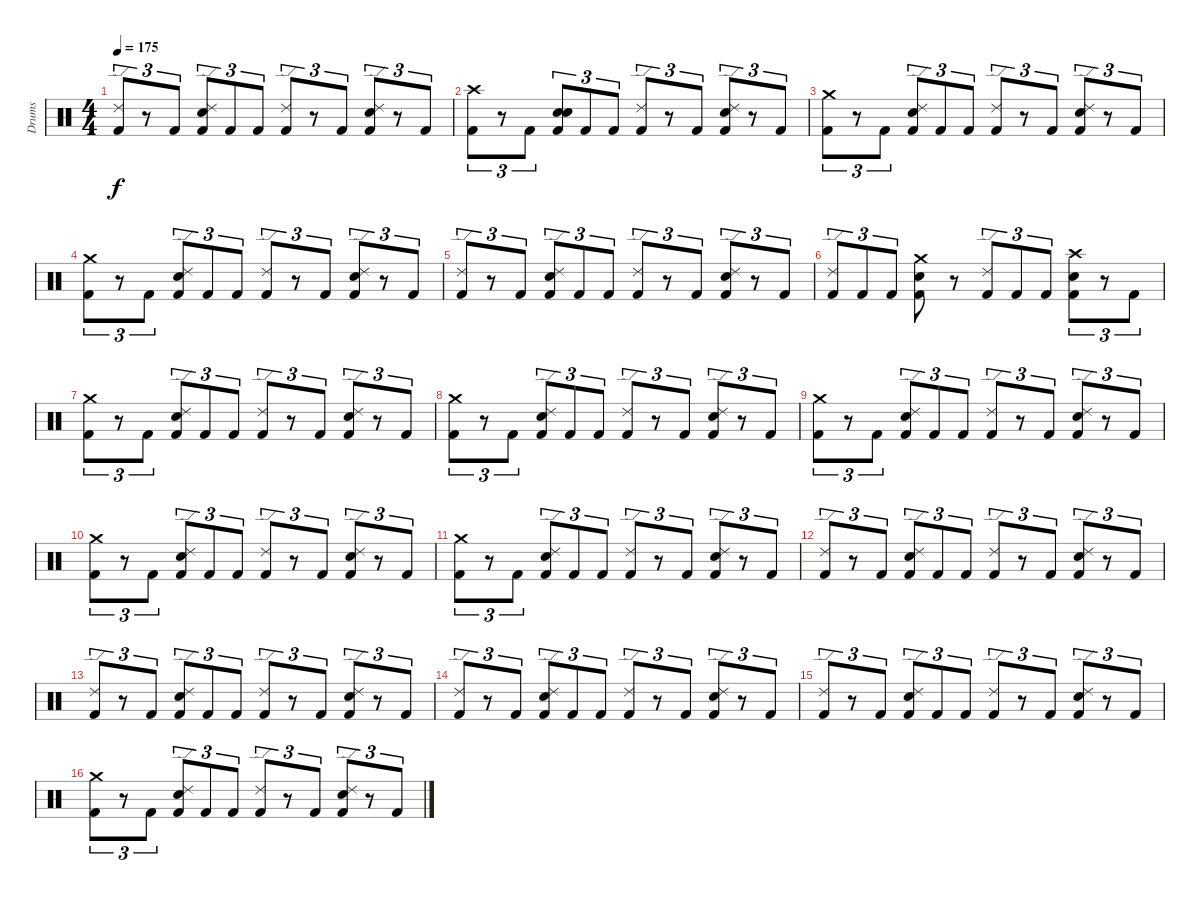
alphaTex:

\track ("Drums" "Drums") {instrument percussion}
\staff {score}
\articulation defaults
\ts (4 4)
\tempo 175
\clef neutral
\ks c
("Ride (edge) 2" "Kick (hit) 2").8{tu (3 2) dy f} r.8{tu (3 2)} "Kick (hit) 2".8{tu (3 2)} ("Ride (edge) 2" "Electric Snare (hit)" "Kick (hit) 2").8{tu (3 2)} "Kick (hit) 2".8{tu (3 2)} "Kick (hit) 2".8{tu (3 2)} ("Ride (edge) 2" "Kick (hit) 2").8{tu (3 2)} r.8{tu (3 2)} "Kick (hit) 2".8{tu (3 2)} ("Electric Snare (hit)" "Kick (hit) 2" "Ride (edge) 2").8{tu (3 2)} r.8{tu (3 2)} "Kick (hit) 2".8{tu (3 2)} |
("Crash high (hit)" "Kick (hit) 2").8{tu (3 2)} r.8{tu (3 2)} "Kick (hit) 2".8{tu (3 2)} ("Electric Snare (hit)" "Electric Snare (hit)" "Kick (hit) 2").8{tu (3 2)} "Kick (hit) 2".8{tu (3 2)} "Kick (hit) 2".8{tu (3 2)} ("Ride (edge) 2" "Kick (hit) 2").8{tu (3 2)} r.8{tu (3 2)} "Kick (hit) 2".8{tu (3 2)} ("Electric Snare (hit)" "Kick (hit) 2" "Ride (edge) 2").8{tu (3 2)} r.8{tu (3 2)} "Kick (hit) 2".8{tu (3 2)} |
("Crash medium (hit)" "Kick (hit) 2").8{tu (3 2)} r.8{tu (3 2)} "Kick (hit) 2".8{tu (3 2)} ("Ride (edge) 2" "Electric Snare (hit)" "Kick (hit) 2").8{tu (3 2)} "Kick (hit) 2".8{tu (3 2)} "Kick (hit) 2".8{tu (3 2)} ("Ride (edge) 2" "Kick (hit) 2").8{tu (3 2)} r.8{tu (3 2)} "Kick (hit) 2".8{tu (3 2)} ("Electric Snare (hit)" "Kick (hit) 2" "Ride (edge) 2").8{tu (3 2)} r.8{tu (3 2)} "Kick (hit) 2".8{tu (3 2)} |
("Crash medium (hit)" "Kick (hit) 2").8{tu (3 2)} r.8{tu (3 2)} "Kick (hit) 2".8{tu (3 2)} ("Ride (edge) 2" "Electric Snare (hit)" "Kick (hit) 2").8{tu (3 2)} "Kick (hit) 2".8{tu (3 2)} "Kick (hit) 2".8{tu (3 2)} ("Ride (edge) 2" "Kick (hit) 2").8{tu (3 2)} r.8{tu (3 2)} "Kick (hit) 2".8{tu (3 2)} ("Electric Snare (hit)" "Kick (hit) 2" "Ride (edge) 2").8{tu (3 2)} r.8{tu (3 2)} "Kick (hit) 2".8{tu (3 2)} |
("Ride (edge) 2" "Kick (hit) 2").8{tu (3 2)} r.8{tu (3 2)} "Kick (hit) 2".8{tu (3 2)} ("Ride (edge) 2" "Electric Snare (hit)" "Kick (hit) 2").8{tu (3 2)} "Kick (hit) 2".8{tu (3 2)} "Kick (hit) 2".8{tu (3 2)} ("Ride (edge) 2" "Kick (hit) 2").8{tu (3 2)} r.8{tu (3 2)} "Kick (hit) 2".8{tu (3 2)} ("Electric Snare (hit)" "Kick (hit) 2" "Ride (edge) 2").8{tu (3 2)} r.8{tu (3 2)} "Kick (hit) 2".8{tu (3 2)} |
("Ride (edge) 2" "Kick (hit) 2").8{tu (3 2)} "Kick (hit) 2".8{tu (3 2)} "Kick (hit) 2".8{tu (3 2)} ("Electric Snare (hit)" "Crash medium (hit)" "Kick (hit) 2").8 r.8 ("Ride (edge) 2" "Kick (hit) 2").8{tu (3 2)} "Kick (hit) 2".8{tu (3 2)} "Kick (hit) 2".8{tu (3 2)} ("Electric Snare (hit)" "Crash high (hit)" "Kick (hit) 2").8{tu (3 2)} r.8{tu (3 2)} "Kick (hit) 2".8{tu (3 2)} |
("Crash medium (hit)" "Kick (hit) 2").8{tu (3 2)} r.8{tu (3 2)} "Kick (hit) 2".8{tu (3 2)} ("Ride (edge) 2" "Electric Snare (hit)" "Kick (hit) 2").8{tu (3 2)} "Kick (hit) 2".8{tu (3 2)} "Kick (hit) 2".8{tu (3 2)} ("Ride (edge) 2" "Kick (hit) 2").8{tu (3 2)} r.8{tu (3 2)} "Kick (hit) 2".8{tu (3 2)} ("Electric Snare (hit)" "Kick (hit) 2" "Ride (edge) 2").8{tu (3 2)} r.8{tu (3 2)} "Kick (hit) 2".8{tu (3 2)} |
("Crash medium (hit)" "Kick (hit) 2").8{tu (3 2)} r.8{tu (3 2)} "Kick (hit) 2".8{tu (3 2)} ("Ride (edge) 2" "Electric Snare (hit)" "Kick (hit) 2").8{tu (3 2)} "Kick (hit) 2".8{tu (3 2)} "Kick (hit) 2".8{tu (3 2)} ("Ride (edge) 2" "Kick (hit) 2").8{tu (3 2)} r.8{tu (3 2)} "Kick (hit) 2".8{tu (3 2)} ("Electric Snare (hit)" "Kick (hit) 2" "Ride (edge) 2").8{tu (3 2)} r.8{tu (3 2)} "Kick (hit) 2".8{tu (3 2)} |
("Crash medium (hit)" "Kick (hit) 2").8{tu (3 2)} r.8{tu (3 2)} "Kick (hit) 2".8{tu (3 2)} ("Ride (edge) 2" "Electric Snare (hit)" "Kick (hit) 2").8{tu (3 2)} "Kick (hit) 2".8{tu (3 2)} "Kick (hit) 2".8{tu (3 2)} ("Ride (edge) 2" "Kick (hit) 2").8{tu (3 2)} r.8{tu (3 2)} "Kick (hit) 2".8{tu (3 2)} ("Electric Snare (hit)" "Kick (hit) 2" "Ride (edge) 2").8{tu (3 2)} r.8{tu (3 2)} "Kick (hit) 2".8{tu (3 2)} |
("Crash medium (hit)" "Kick (hit) 2").8{tu (3 2)} r.8{tu (3 2)} "Kick (hit) 2".8{tu (3 2)} ("Ride (edge) 2" "Electric Snare (hit)" "Kick (hit) 2").8{tu (3 2)} "Kick (hit) 2".8{tu (3 2)} "Kick (hit) 2".8{tu (3 2)} ("Ride (edge) 2" "Kick (hit) 2").8{tu (3 2)} r.8{tu (3 2)} "Kick (hit) 2".8{tu (3 2)} ("Electric Snare (hit)" "Kick (hit) 2" "Ride (edge) 2").8{tu (3 2)} r.8{tu (3 2)} "Kick (hit) 2".8{tu (3 2)} |
("Crash medium (hit)" "Kick (hit) 2").8{tu (3 2)} r.8{tu (3 2)} "Kick (hit) 2".8{tu (3 2)} ("Ride (edge) 2" "Electric Snare (hit)" "Kick (hit) 2").8{tu (3 2)} "Kick (hit) 2".8{tu (3 2)} "Kick (hit) 2".8{tu (3 2)} ("Ride (edge) 2" "Kick (hit) 2").8{tu (3 2)} r.8{tu (3 2)} "Kick (hit) 2".8{tu (3 2)} ("Electric Snare (hit)" "Kick (hit) 2" "Ride (edge) 2").8{tu (3 2)} r.8{tu (3 2)} "Kick (hit) 2".8{tu (3 2)} |
("Ride (edge) 2" "Kick (hit) 2").8{tu (3 2)} r.8{tu (3 2)} "Kick (hit) 2".8{tu (3 2)} ("Ride (edge) 2" "Electric Snare (hit)" "Kick (hit) 2").8{tu (3 2)} "Kick (hit) 2".8{tu (3 2)} "Kick (hit) 2".8{tu (3 2)} ("Ride (edge) 2" "Kick (hit) 2").8{tu (3 2)} r.8{tu (3 2)} "Kick (hit) 2".8{tu (3 2)} ("Electric Snare (hit)" "Kick (hit) 2" "Ride (edge) 2").8{tu (3 2)} r.8{tu (3 2)} "Kick (hit) 2".8{tu (3 2)} |
("Ride (edge) 2" "Kick (hit) 2").8{tu (3 2)} r.8{tu (3 2)} "Kick (hit) 2".8{tu (3 2)} ("Ride (edge) 2" "Electric Snare (hit)" "Kick (hit) 2").8{tu (3 2)} "Kick (hit) 2".8{tu (3 2)} "Kick (hit) 2".8{tu (3 2)} ("Ride (edge) 2" "Kick (hit) 2").8{tu (3 2)} r.8{tu (3 2)} "Kick (hit) 2".8{tu (3 2)} ("Electric Snare (hit)" "Kick (hit) 2" "Ride (edge) 2").8{tu (3 2)} r.8{tu (3 2)} "Kick (hit) 2".8{tu (3 2)} |
("Ride (edge) 2" "Kick (hit) 2").8{tu (3 2)} r.8{tu (3 2)} "Kick (hit) 2".8{tu (3 2)} ("Ride (edge) 2" "Electric Snare (hit)" "Kick (hit) 2").8{tu (3 2)} "Kick (hit) 2".8{tu (3 2)} "Kick (hit) 2".8{tu (3 2)} ("Ride (edge) 2" "Kick (hit) 2").8{tu (3 2)} r.8{tu (3 2)} "Kick (hit) 2".8{tu (3 2)} ("Electric Snare (hit)" "Kick (hit) 2" "Ride (edge) 2").8{tu (3 2)} r.8{tu (3 2)} "Kick (hit) 2".8{tu (3 2)} |
("Ride (edge) 2" "Kick (hit) 2").8{tu (3 2)} r.8{tu (3 2)} "Kick (hit) 2".8{tu (3 2)} ("Ride (edge) 2" "Electric Snare (hit)" "Kick (hit) 2").8{tu (3 2)} "Kick (hit) 2".8{tu (3 2)} "Kick (hit) 2".8{tu (3 2)} ("Ride (edge) 2" "Kick (hit) 2").8{tu (3 2)} r.8{tu (3 2)} "Kick (hit) 2".8{tu (3 2)} ("Electric Snare (hit)" "Kick (hit) 2" "Ride (edge) 2").8{tu (3 2)} r.8{tu (3 2)} "Kick (hit) 2".8{tu (3 2)} |
("Crash medium (hit)" "Kick (hit) 2").8{tu (3 2)} r.8{tu (3 2)} "Kick (hit) 2".8{tu (3 2)} ("Ride (edge) 2" "Electric Snare (hit)" "Kick (hit) 2").8{tu (3 2)} "Kick (hit) 2".8{tu (3 2)} "Kick (hit) 2".8{tu (3 2)} ("Ride (edge) 2" "Kick (hit) 2").8{tu (3 2)} r.8{tu (3 2)} "Kick (hit) 2".8{tu (3 2)} ("Electric Snare (hit)" "Kick (hit) 2" "Ride (edge) 2").8{tu (3 2)} r.8{tu (3 2)} "Kick (hit) 2".8{tu (3 2)}
